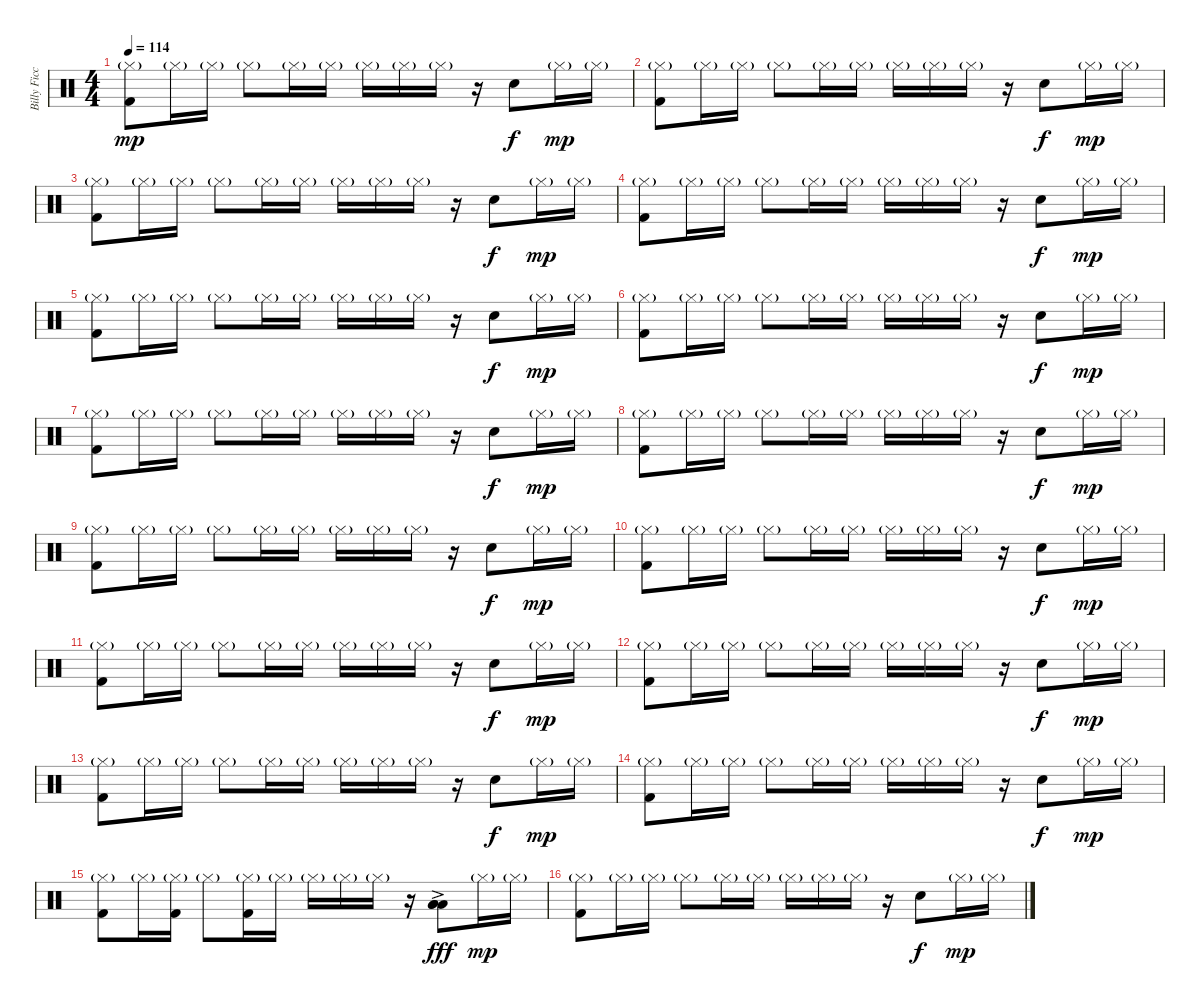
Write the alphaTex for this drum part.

\track ("Billy Ficca" "Billy Ficc") {instrument percussion}
\staff {score}
\articulation defaults
\ts (4 4)
\tempo 114
\clef neutral
\ks c
("Hi-Hat (closed)"{g} "Kick (hit) 2").8{dy mp} "Hi-Hat (closed)"{g}.16 "Hi-Hat (closed)"{g}.16 "Hi-Hat (closed)"{g}.8 "Hi-Hat (closed)"{g}.16 "Hi-Hat (closed)"{g}.16 "Hi-Hat (closed)"{g}.16 "Hi-Hat (closed)"{g}.16 "Hi-Hat (closed)"{g}.16 r.16 "Electric Snare (hit)".8{dy f} "Hi-Hat (closed)"{g}.16{dy mp} "Hi-Hat (closed)"{g}.16 |
("Hi-Hat (closed)"{g} "Kick (hit) 2").8 "Hi-Hat (closed)"{g}.16 "Hi-Hat (closed)"{g}.16 "Hi-Hat (closed)"{g}.8 "Hi-Hat (closed)"{g}.16 "Hi-Hat (closed)"{g}.16 "Hi-Hat (closed)"{g}.16 "Hi-Hat (closed)"{g}.16 "Hi-Hat (closed)"{g}.16 r.16 "Electric Snare (hit)".8{dy f} "Hi-Hat (closed)"{g}.16{dy mp} "Hi-Hat (closed)"{g}.16 |
("Hi-Hat (closed)"{g} "Kick (hit) 2").8 "Hi-Hat (closed)"{g}.16 "Hi-Hat (closed)"{g}.16 "Hi-Hat (closed)"{g}.8 "Hi-Hat (closed)"{g}.16 "Hi-Hat (closed)"{g}.16 "Hi-Hat (closed)"{g}.16 "Hi-Hat (closed)"{g}.16 "Hi-Hat (closed)"{g}.16 r.16 "Electric Snare (hit)".8{dy f} "Hi-Hat (closed)"{g}.16{dy mp} "Hi-Hat (closed)"{g}.16 |
("Hi-Hat (closed)"{g} "Kick (hit) 2").8 "Hi-Hat (closed)"{g}.16 "Hi-Hat (closed)"{g}.16 "Hi-Hat (closed)"{g}.8 "Hi-Hat (closed)"{g}.16 "Hi-Hat (closed)"{g}.16 "Hi-Hat (closed)"{g}.16 "Hi-Hat (closed)"{g}.16 "Hi-Hat (closed)"{g}.16 r.16 "Electric Snare (hit)".8{dy f} "Hi-Hat (closed)"{g}.16{dy mp} "Hi-Hat (closed)"{g}.16 |
("Hi-Hat (closed)"{g} "Kick (hit) 2").8 "Hi-Hat (closed)"{g}.16 "Hi-Hat (closed)"{g}.16 "Hi-Hat (closed)"{g}.8 "Hi-Hat (closed)"{g}.16 "Hi-Hat (closed)"{g}.16 "Hi-Hat (closed)"{g}.16 "Hi-Hat (closed)"{g}.16 "Hi-Hat (closed)"{g}.16 r.16 "Electric Snare (hit)".8{dy f} "Hi-Hat (closed)"{g}.16{dy mp} "Hi-Hat (closed)"{g}.16 |
("Hi-Hat (closed)"{g} "Kick (hit) 2").8 "Hi-Hat (closed)"{g}.16 "Hi-Hat (closed)"{g}.16 "Hi-Hat (closed)"{g}.8 "Hi-Hat (closed)"{g}.16 "Hi-Hat (closed)"{g}.16 "Hi-Hat (closed)"{g}.16 "Hi-Hat (closed)"{g}.16 "Hi-Hat (closed)"{g}.16 r.16 "Electric Snare (hit)".8{dy f} "Hi-Hat (closed)"{g}.16{dy mp} "Hi-Hat (closed)"{g}.16 |
("Hi-Hat (closed)"{g} "Kick (hit) 2").8 "Hi-Hat (closed)"{g}.16 "Hi-Hat (closed)"{g}.16 "Hi-Hat (closed)"{g}.8 "Hi-Hat (closed)"{g}.16 "Hi-Hat (closed)"{g}.16 "Hi-Hat (closed)"{g}.16 "Hi-Hat (closed)"{g}.16 "Hi-Hat (closed)"{g}.16 r.16 "Electric Snare (hit)".8{dy f} "Hi-Hat (closed)"{g}.16{dy mp} "Hi-Hat (closed)"{g}.16 |
("Hi-Hat (closed)"{g} "Kick (hit) 2").8 "Hi-Hat (closed)"{g}.16 "Hi-Hat (closed)"{g}.16 "Hi-Hat (closed)"{g}.8 "Hi-Hat (closed)"{g}.16 "Hi-Hat (closed)"{g}.16 "Hi-Hat (closed)"{g}.16 "Hi-Hat (closed)"{g}.16 "Hi-Hat (closed)"{g}.16 r.16 "Electric Snare (hit)".8{dy f} "Hi-Hat (closed)"{g}.16{dy mp} "Hi-Hat (closed)"{g}.16 |
("Hi-Hat (closed)"{g} "Kick (hit) 2").8 "Hi-Hat (closed)"{g}.16 "Hi-Hat (closed)"{g}.16 "Hi-Hat (closed)"{g}.8 "Hi-Hat (closed)"{g}.16 "Hi-Hat (closed)"{g}.16 "Hi-Hat (closed)"{g}.16 "Hi-Hat (closed)"{g}.16 "Hi-Hat (closed)"{g}.16 r.16 "Electric Snare (hit)".8{dy f} "Hi-Hat (closed)"{g}.16{dy mp} "Hi-Hat (closed)"{g}.16 |
("Hi-Hat (closed)"{g} "Kick (hit) 2").8 "Hi-Hat (closed)"{g}.16 "Hi-Hat (closed)"{g}.16 "Hi-Hat (closed)"{g}.8 "Hi-Hat (closed)"{g}.16 "Hi-Hat (closed)"{g}.16 "Hi-Hat (closed)"{g}.16 "Hi-Hat (closed)"{g}.16 "Hi-Hat (closed)"{g}.16 r.16 "Electric Snare (hit)".8{dy f} "Hi-Hat (closed)"{g}.16{dy mp} "Hi-Hat (closed)"{g}.16 |
("Hi-Hat (closed)"{g} "Kick (hit) 2").8 "Hi-Hat (closed)"{g}.16 "Hi-Hat (closed)"{g}.16 "Hi-Hat (closed)"{g}.8 "Hi-Hat (closed)"{g}.16 "Hi-Hat (closed)"{g}.16 "Hi-Hat (closed)"{g}.16 "Hi-Hat (closed)"{g}.16 "Hi-Hat (closed)"{g}.16 r.16 "Electric Snare (hit)".8{dy f} "Hi-Hat (closed)"{g}.16{dy mp} "Hi-Hat (closed)"{g}.16 |
("Hi-Hat (closed)"{g} "Kick (hit) 2").8 "Hi-Hat (closed)"{g}.16 "Hi-Hat (closed)"{g}.16 "Hi-Hat (closed)"{g}.8 "Hi-Hat (closed)"{g}.16 "Hi-Hat (closed)"{g}.16 "Hi-Hat (closed)"{g}.16 "Hi-Hat (closed)"{g}.16 "Hi-Hat (closed)"{g}.16 r.16 "Electric Snare (hit)".8{dy f} "Hi-Hat (closed)"{g}.16{dy mp} "Hi-Hat (closed)"{g}.16 |
("Hi-Hat (closed)"{g} "Kick (hit) 2").8 "Hi-Hat (closed)"{g}.16 "Hi-Hat (closed)"{g}.16 "Hi-Hat (closed)"{g}.8 "Hi-Hat (closed)"{g}.16 "Hi-Hat (closed)"{g}.16 "Hi-Hat (closed)"{g}.16 "Hi-Hat (closed)"{g}.16 "Hi-Hat (closed)"{g}.16 r.16 "Electric Snare (hit)".8{dy f} "Hi-Hat (closed)"{g}.16{dy mp} "Hi-Hat (closed)"{g}.16 |
("Hi-Hat (closed)"{g} "Kick (hit) 2").8 "Hi-Hat (closed)"{g}.16 "Hi-Hat (closed)"{g}.16 "Hi-Hat (closed)"{g}.8 "Hi-Hat (closed)"{g}.16 "Hi-Hat (closed)"{g}.16 "Hi-Hat (closed)"{g}.16 "Hi-Hat (closed)"{g}.16 "Hi-Hat (closed)"{g}.16 r.16 "Electric Snare (hit)".8{dy f} "Hi-Hat (closed)"{g}.16{dy mp} "Hi-Hat (closed)"{g}.16 |
("Hi-Hat (closed)"{g} "Kick (hit) 2").8 "Hi-Hat (closed)"{g}.16 ("Hi-Hat (closed)"{g} "Kick (hit) 2").16 "Hi-Hat (closed)"{g}.8 ("Hi-Hat (closed)"{g} "Kick (hit) 2").16 "Hi-Hat (closed)"{g}.16 "Hi-Hat (closed)"{g}.16 "Hi-Hat (closed)"{g}.16 "Hi-Hat (closed)"{g}.16 r.16 ("Low Tom (hit)"{ac} "Low Floor Tom (hit)" "Low Floor Tom (hit)").8{dy fff} "Hi-Hat (closed)"{g}.16{dy mp} "Hi-Hat (closed)"{g}.16 |
("Hi-Hat (closed)"{g} "Kick (hit) 2").8 "Hi-Hat (closed)"{g}.16 "Hi-Hat (closed)"{g}.16 "Hi-Hat (closed)"{g}.8 "Hi-Hat (closed)"{g}.16 "Hi-Hat (closed)"{g}.16 "Hi-Hat (closed)"{g}.16 "Hi-Hat (closed)"{g}.16 "Hi-Hat (closed)"{g}.16 r.16 "Electric Snare (hit)".8{dy f} "Hi-Hat (closed)"{g}.16{dy mp} "Hi-Hat (closed)"{g}.16
